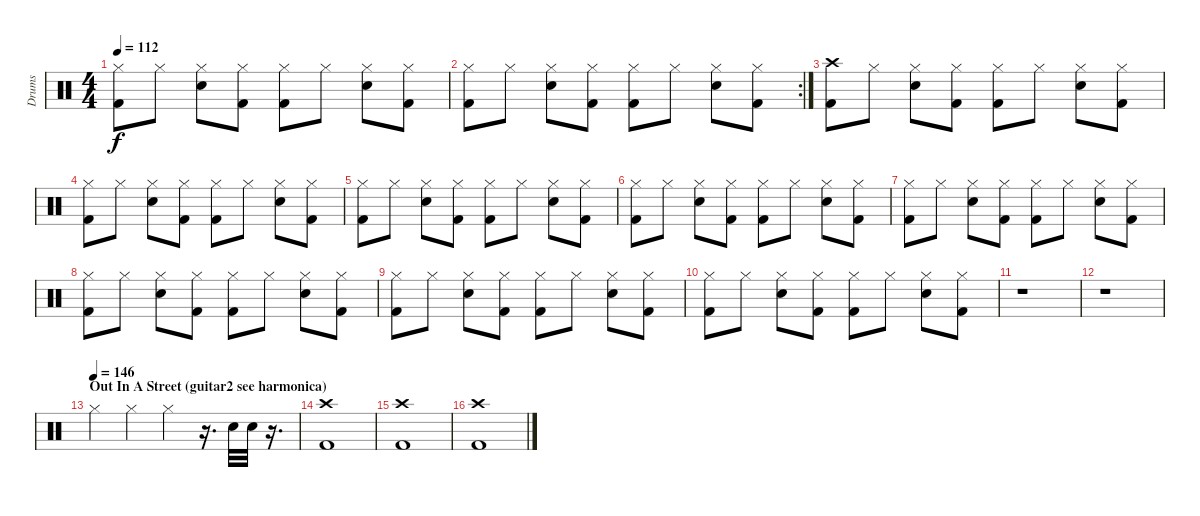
\track ("Drums" "Drums") {instrument percussion}
\staff {score}
\articulation defaults
\ts (4 4)
\tempo 112
\clef neutral
\ks c
("Hi-Hat (closed)" "Kick (hit) 2").8{dy f} "Hi-Hat (closed)".8 ("Hi-Hat (closed)" "Electric Snare (hit)").8 ("Hi-Hat (closed)" "Kick (hit) 2").8 ("Hi-Hat (closed)" "Kick (hit) 2").8 "Hi-Hat (closed)".8 ("Hi-Hat (closed)" "Electric Snare (hit)").8 ("Hi-Hat (closed)" "Kick (hit) 2").8 |
\rc 2
("Hi-Hat (closed)" "Kick (hit) 2").8 "Hi-Hat (closed)".8 ("Hi-Hat (closed)" "Electric Snare (hit)").8 ("Hi-Hat (closed)" "Kick (hit) 2").8 ("Hi-Hat (closed)" "Kick (hit) 2").8 "Hi-Hat (closed)".8 ("Hi-Hat (closed)" "Electric Snare (hit)").8 ("Hi-Hat (closed)" "Kick (hit) 2").8 |
("Crash high (hit)" "Kick (hit) 2").8 "Hi-Hat (closed)".8 ("Hi-Hat (closed)" "Electric Snare (hit)").8 ("Hi-Hat (closed)" "Kick (hit) 2").8 ("Hi-Hat (closed)" "Kick (hit) 2").8 "Hi-Hat (closed)".8 ("Hi-Hat (closed)" "Electric Snare (hit)").8 ("Hi-Hat (closed)" "Kick (hit) 2").8 |
("Hi-Hat (closed)" "Kick (hit) 2").8 "Hi-Hat (closed)".8 ("Hi-Hat (closed)" "Electric Snare (hit)").8 ("Hi-Hat (closed)" "Kick (hit) 2").8 ("Hi-Hat (closed)" "Kick (hit) 2").8 "Hi-Hat (closed)".8 ("Hi-Hat (closed)" "Electric Snare (hit)").8 ("Hi-Hat (closed)" "Kick (hit) 2").8 |
("Hi-Hat (closed)" "Kick (hit) 2").8 "Hi-Hat (closed)".8 ("Hi-Hat (closed)" "Electric Snare (hit)").8 ("Hi-Hat (closed)" "Kick (hit) 2").8 ("Hi-Hat (closed)" "Kick (hit) 2").8 "Hi-Hat (closed)".8 ("Hi-Hat (closed)" "Electric Snare (hit)").8 ("Hi-Hat (closed)" "Kick (hit) 2").8 |
("Hi-Hat (closed)" "Kick (hit) 2").8 "Hi-Hat (closed)".8 ("Hi-Hat (closed)" "Electric Snare (hit)").8 ("Hi-Hat (closed)" "Kick (hit) 2").8 ("Hi-Hat (closed)" "Kick (hit) 2").8 "Hi-Hat (closed)".8 ("Hi-Hat (closed)" "Electric Snare (hit)").8 ("Hi-Hat (closed)" "Kick (hit) 2").8 |
("Hi-Hat (closed)" "Kick (hit) 2").8{volume 6} "Hi-Hat (closed)".8 ("Hi-Hat (closed)" "Electric Snare (hit)").8 ("Hi-Hat (closed)" "Kick (hit) 2").8 ("Hi-Hat (closed)" "Kick (hit) 2").8 "Hi-Hat (closed)".8 ("Hi-Hat (closed)" "Electric Snare (hit)").8 ("Hi-Hat (closed)" "Kick (hit) 2").8 |
("Hi-Hat (closed)" "Kick (hit) 2").8 "Hi-Hat (closed)".8 ("Hi-Hat (closed)" "Electric Snare (hit)").8 ("Hi-Hat (closed)" "Kick (hit) 2").8 ("Hi-Hat (closed)" "Kick (hit) 2").8 "Hi-Hat (closed)".8 ("Hi-Hat (closed)" "Electric Snare (hit)").8 ("Hi-Hat (closed)" "Kick (hit) 2").8 |
("Hi-Hat (closed)" "Kick (hit) 2").8{volume 0} "Hi-Hat (closed)".8 ("Hi-Hat (closed)" "Electric Snare (hit)").8 ("Hi-Hat (closed)" "Kick (hit) 2").8 ("Hi-Hat (closed)" "Kick (hit) 2").8 "Hi-Hat (closed)".8 ("Hi-Hat (closed)" "Electric Snare (hit)").8 ("Hi-Hat (closed)" "Kick (hit) 2").8 |
("Hi-Hat (closed)" "Kick (hit) 2").8 "Hi-Hat (closed)".8 ("Hi-Hat (closed)" "Electric Snare (hit)").8 ("Hi-Hat (closed)" "Kick (hit) 2").8 ("Hi-Hat (closed)" "Kick (hit) 2").8 "Hi-Hat (closed)".8 ("Hi-Hat (closed)" "Electric Snare (hit)").8 ("Hi-Hat (closed)" "Kick (hit) 2").8 |
r.1 |
r.1{volume 11} |
\section ("" "Out In A Street (guitar2 see harmonica)")
\tempo (146)
"Hi-Hat (closed)".4 "Hi-Hat (closed)".4 "Hi-Hat (closed)".4 r.16{d} "Electric Snare (hit)".32 "Electric Snare (hit)".32 r.16{d} |
("Crash high (hit)" "Kick (hit) 2").1 |
("Crash high (hit)" "Kick (hit) 2").1 |
("Crash high (hit)" "Kick (hit) 2").1
